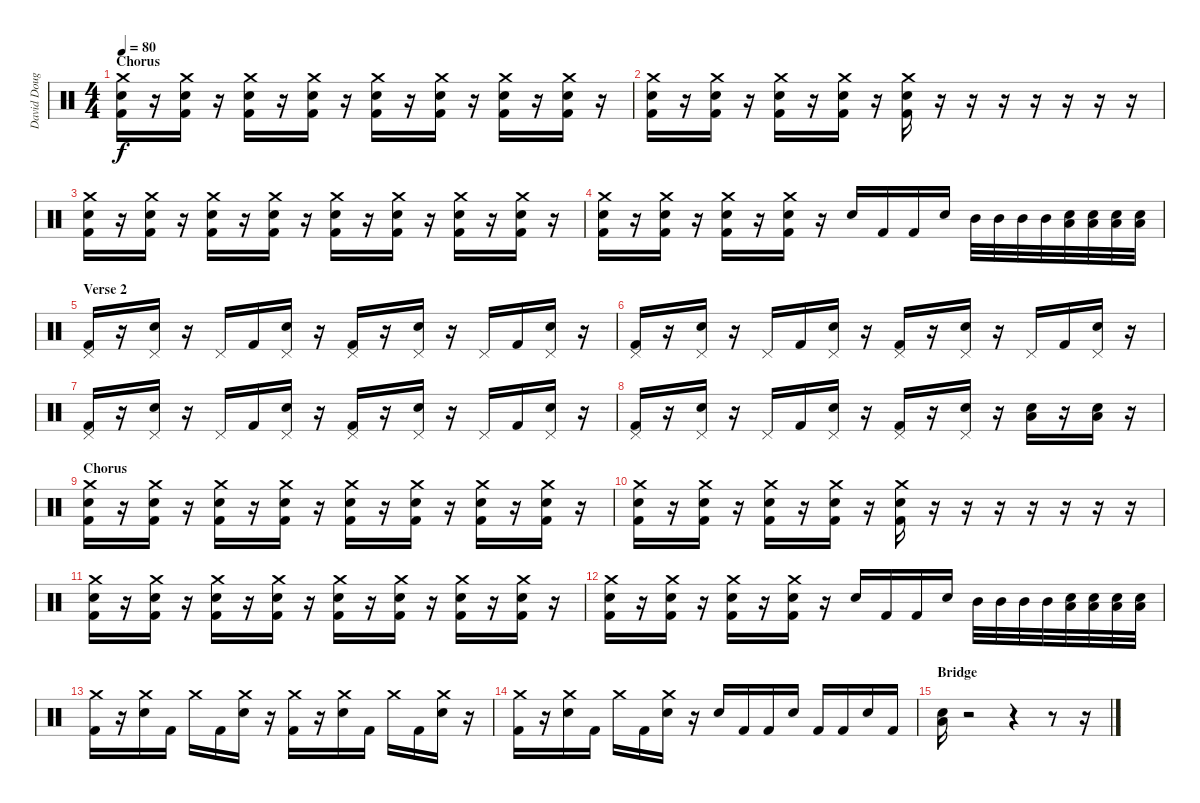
\track ("David Douglas" "David Doug") {instrument percussion}
\staff {score}
\articulation defaults
\ts (4 4)
\section ("" "Chorus")
\tempo 80
\clef neutral
\ks c
("Crash medium (hit)" "Electric Snare (hit)" "Kick (hit) 2").16{dy f} r.16 ("Crash medium (hit)" "Electric Snare (hit)" "Kick (hit) 2").16 r.16 ("Crash medium (hit)" "Electric Snare (hit)" "Kick (hit) 2").16 r.16 ("Crash medium (hit)" "Electric Snare (hit)" "Kick (hit) 2").16 r.16 ("Crash medium (hit)" "Electric Snare (hit)" "Kick (hit) 2").16 r.16 ("Crash medium (hit)" "Electric Snare (hit)" "Kick (hit) 2").16 r.16 ("Crash medium (hit)" "Electric Snare (hit)" "Kick (hit) 2").16 r.16 ("Crash medium (hit)" "Electric Snare (hit)" "Kick (hit) 2").16 r.16 |
("Crash medium (hit)" "Electric Snare (hit)" "Kick (hit) 2").16 r.16 ("Crash medium (hit)" "Electric Snare (hit)" "Kick (hit) 2").16 r.16 ("Crash medium (hit)" "Electric Snare (hit)" "Kick (hit) 2").16 r.16 ("Crash medium (hit)" "Electric Snare (hit)" "Kick (hit) 2").16 r.16 ("Crash medium (hit)" "Electric Snare (hit)" "Kick (hit) 2").16 r.16 r.16 r.16 r.16 r.16 r.16 r.16 |
("Crash medium (hit)" "Electric Snare (hit)" "Kick (hit) 2").16 r.16 ("Crash medium (hit)" "Electric Snare (hit)" "Kick (hit) 2").16 r.16 ("Crash medium (hit)" "Electric Snare (hit)" "Kick (hit) 2").16 r.16 ("Crash medium (hit)" "Electric Snare (hit)" "Kick (hit) 2").16 r.16 ("Crash medium (hit)" "Electric Snare (hit)" "Kick (hit) 2").16 r.16 ("Crash medium (hit)" "Electric Snare (hit)" "Kick (hit) 2").16 r.16 ("Crash medium (hit)" "Electric Snare (hit)" "Kick (hit) 2").16 r.16 ("Crash medium (hit)" "Electric Snare (hit)" "Kick (hit) 2").16 r.16 |
("Crash medium (hit)" "Electric Snare (hit)" "Kick (hit) 2").16 r.16 ("Crash medium (hit)" "Electric Snare (hit)" "Kick (hit) 2").16 r.16 ("Crash medium (hit)" "Electric Snare (hit)" "Kick (hit) 2").16 r.16 ("Crash medium (hit)" "Electric Snare (hit)" "Kick (hit) 2").16 r.16 "Electric Snare (hit)".16 "Kick (hit) 2".16 "Kick (hit) 2".16 "Electric Snare (hit)".16 "Mid Tom (hit)".32 "Mid Tom (hit)".32 "Mid Tom (hit)".32 "Mid Tom (hit)".32 ("Low Tom (hit)" "Electric Snare (hit)").32 ("Low Tom (hit)" "Electric Snare (hit)").32 ("Low Tom (hit)" "Electric Snare (hit)").32 ("Low Tom (hit)" "Electric Snare (hit)").32 |
\section ("" "Verse 2")
("Pedal Hi-Hat (hit)" "Kick (hit) 2").16 r.16 ("Pedal Hi-Hat (hit)" "Electric Snare (hit)").16 r.16 "Pedal Hi-Hat (hit)".16 "Kick (hit) 2".16 ("Pedal Hi-Hat (hit)" "Electric Snare (hit)").16 r.16 ("Pedal Hi-Hat (hit)" "Kick (hit) 2").16 r.16 ("Pedal Hi-Hat (hit)" "Electric Snare (hit)").16 r.16 "Pedal Hi-Hat (hit)".16 "Kick (hit) 2".16 ("Pedal Hi-Hat (hit)" "Electric Snare (hit)").16 r.16 |
("Pedal Hi-Hat (hit)" "Kick (hit) 2").16 r.16 ("Pedal Hi-Hat (hit)" "Electric Snare (hit)").16 r.16 "Pedal Hi-Hat (hit)".16 "Kick (hit) 2".16 ("Pedal Hi-Hat (hit)" "Electric Snare (hit)").16 r.16 ("Pedal Hi-Hat (hit)" "Kick (hit) 2").16 r.16 ("Pedal Hi-Hat (hit)" "Electric Snare (hit)").16 r.16 "Pedal Hi-Hat (hit)".16 "Kick (hit) 2".16 ("Pedal Hi-Hat (hit)" "Electric Snare (hit)").16 r.16 |
("Pedal Hi-Hat (hit)" "Kick (hit) 2").16 r.16 ("Pedal Hi-Hat (hit)" "Electric Snare (hit)").16 r.16 "Pedal Hi-Hat (hit)".16 "Kick (hit) 2".16 ("Pedal Hi-Hat (hit)" "Electric Snare (hit)").16 r.16 ("Pedal Hi-Hat (hit)" "Kick (hit) 2").16 r.16 ("Pedal Hi-Hat (hit)" "Electric Snare (hit)").16 r.16 "Pedal Hi-Hat (hit)".16 "Kick (hit) 2".16 ("Pedal Hi-Hat (hit)" "Electric Snare (hit)").16 r.16 |
("Pedal Hi-Hat (hit)" "Kick (hit) 2").16 r.16 ("Pedal Hi-Hat (hit)" "Electric Snare (hit)").16 r.16 "Pedal Hi-Hat (hit)".16 "Kick (hit) 2".16 ("Pedal Hi-Hat (hit)" "Electric Snare (hit)").16 r.16 ("Pedal Hi-Hat (hit)" "Kick (hit) 2").16 r.16 ("Pedal Hi-Hat (hit)" "Electric Snare (hit)").16 r.16 ("Low Tom (hit)" "Electric Snare (hit)").16 r.16 ("Low Tom (hit)" "Electric Snare (hit)").16 r.16 |
\section ("" "Chorus")
("Crash medium (hit)" "Electric Snare (hit)" "Kick (hit) 2").16 r.16 ("Crash medium (hit)" "Electric Snare (hit)" "Kick (hit) 2").16 r.16 ("Crash medium (hit)" "Electric Snare (hit)" "Kick (hit) 2").16 r.16 ("Crash medium (hit)" "Electric Snare (hit)" "Kick (hit) 2").16 r.16 ("Crash medium (hit)" "Electric Snare (hit)" "Kick (hit) 2").16 r.16 ("Crash medium (hit)" "Electric Snare (hit)" "Kick (hit) 2").16 r.16 ("Crash medium (hit)" "Electric Snare (hit)" "Kick (hit) 2").16 r.16 ("Crash medium (hit)" "Electric Snare (hit)" "Kick (hit) 2").16 r.16 |
("Crash medium (hit)" "Electric Snare (hit)" "Kick (hit) 2").16 r.16 ("Crash medium (hit)" "Electric Snare (hit)" "Kick (hit) 2").16 r.16 ("Crash medium (hit)" "Electric Snare (hit)" "Kick (hit) 2").16 r.16 ("Crash medium (hit)" "Electric Snare (hit)" "Kick (hit) 2").16 r.16 ("Crash medium (hit)" "Electric Snare (hit)" "Kick (hit) 2").16 r.16 r.16 r.16 r.16 r.16 r.16 r.16 |
("Crash medium (hit)" "Electric Snare (hit)" "Kick (hit) 2").16 r.16 ("Crash medium (hit)" "Electric Snare (hit)" "Kick (hit) 2").16 r.16 ("Crash medium (hit)" "Electric Snare (hit)" "Kick (hit) 2").16 r.16 ("Crash medium (hit)" "Electric Snare (hit)" "Kick (hit) 2").16 r.16 ("Crash medium (hit)" "Electric Snare (hit)" "Kick (hit) 2").16 r.16 ("Crash medium (hit)" "Electric Snare (hit)" "Kick (hit) 2").16 r.16 ("Crash medium (hit)" "Electric Snare (hit)" "Kick (hit) 2").16 r.16 ("Crash medium (hit)" "Electric Snare (hit)" "Kick (hit) 2").16 r.16 |
("Crash medium (hit)" "Electric Snare (hit)" "Kick (hit) 2").16 r.16 ("Crash medium (hit)" "Electric Snare (hit)" "Kick (hit) 2").16 r.16 ("Crash medium (hit)" "Electric Snare (hit)" "Kick (hit) 2").16 r.16 ("Crash medium (hit)" "Electric Snare (hit)" "Kick (hit) 2").16 r.16 "Electric Snare (hit)".16 "Kick (hit) 2".16 "Kick (hit) 2".16 "Electric Snare (hit)".16 "Mid Tom (hit)".32 "Mid Tom (hit)".32 "Mid Tom (hit)".32 "Mid Tom (hit)".32 ("Low Tom (hit)" "Electric Snare (hit)").32 ("Low Tom (hit)" "Electric Snare (hit)").32 ("Low Tom (hit)" "Electric Snare (hit)").32 ("Low Tom (hit)" "Electric Snare (hit)").32 |
\section ("" "")
("Crash medium (hit)" "Kick (hit) 2").16 r.16 ("Crash medium (hit)" "Electric Snare (hit)").16 "Kick (hit) 2".16 "Crash medium (hit)".16 "Kick (hit) 2".16 ("Crash medium (hit)" "Electric Snare (hit)").16 r.16 ("Crash medium (hit)" "Kick (hit) 2").16 r.16 ("Crash medium (hit)" "Electric Snare (hit)").16 "Kick (hit) 2".16 "Crash medium (hit)".16 "Kick (hit) 2".16 ("Crash medium (hit)" "Electric Snare (hit)").16 r.16 |
("Crash medium (hit)" "Kick (hit) 2").16 r.16 ("Crash medium (hit)" "Electric Snare (hit)").16 "Kick (hit) 2".16 "Crash medium (hit)".16 "Kick (hit) 2".16 ("Crash medium (hit)" "Electric Snare (hit)").16 r.16 "Electric Snare (hit)".16 "Kick (hit) 2".16 "Kick (hit) 2".16 "Electric Snare (hit)".16 "Kick (hit) 2".16 "Kick (hit) 2".16 "Electric Snare (hit)".16 "Kick (hit) 2".16 |
\section ("" "Bridge")
("Low Tom (hit)" "Electric Snare (hit)").16 r.2 r.4 r.8 r.16
